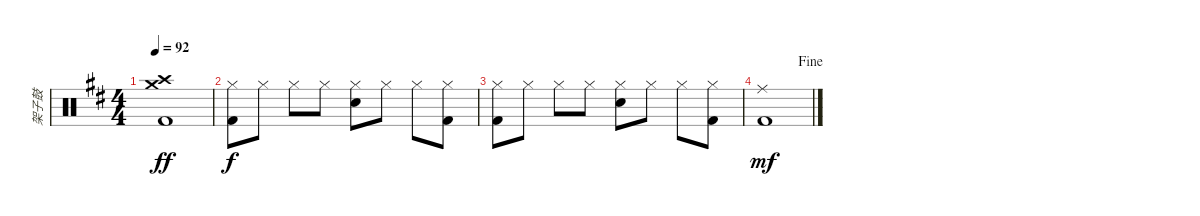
\track ("架子鼓" "架子鼓") {instrument percussion}
\staff {score}
\articulation defaults
\ts (4 4)
\tempo 92
\clef neutral
\ks d
("Crash high (hit)" "Crash medium (hit)" "Kick (hit) 2").1{dy ff} |
("Hi-Hat (closed)" "Kick (hit) 2").8{dy f} "Hi-Hat (closed)".8 "Hi-Hat (closed)".8 "Hi-Hat (closed)".8 ("Hi-Hat (closed)" "Electric Snare (hit)").8 "Hi-Hat (closed)".8 "Hi-Hat (closed)".8 ("Hi-Hat (closed)" "Kick (hit) 2").8 |
("Hi-Hat (closed)" "Kick (hit) 2").8 "Hi-Hat (closed)".8 "Hi-Hat (closed)".8 "Hi-Hat (closed)".8 ("Hi-Hat (closed)" "Electric Snare (hit)").8 "Hi-Hat (closed)".8 "Hi-Hat (closed)".8 ("Hi-Hat (closed)" "Kick (hit) 2").8 |
\jump fine
("Ride (middle)" "Kick (hit) 2").1{dy mf}
